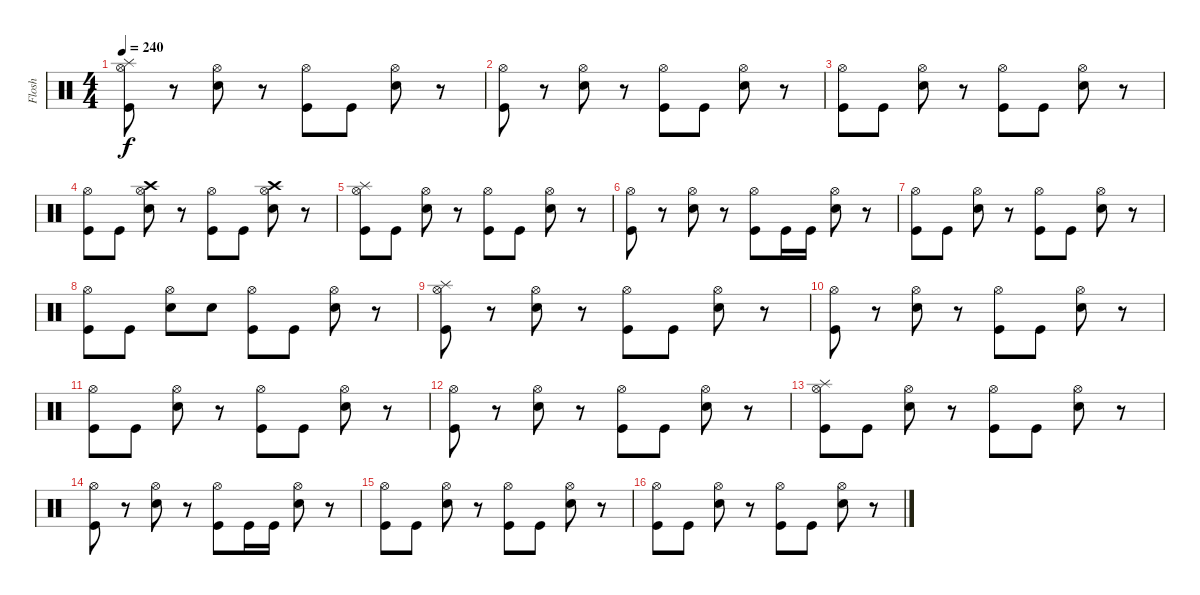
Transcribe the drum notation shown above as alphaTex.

\track ("Flosh" "Flosh") {instrument percussion}
\staff {score}
\articulation defaults
\ts (4 4)
\tempo 240
\clef neutral
\ks c
("Splash (hit)" "Hi-Hat (open)" "Kick (hit)").8{dy f} r.8 ("Hi-Hat (open)" "Snare (hit) 2").8 r.8 ("Hi-Hat (open)" "Kick (hit)").8 "Kick (hit)".8 ("Hi-Hat (open)" "Snare (hit) 2").8 r.8 |
("Hi-Hat (open)" "Kick (hit)").8 r.8 ("Hi-Hat (open)" "Snare (hit) 2").8 r.8 ("Hi-Hat (open)" "Kick (hit)").8 "Kick (hit)".8 ("Hi-Hat (open)" "Snare (hit) 2").8 r.8 |
("Hi-Hat (open)" "Kick (hit)").8 "Kick (hit)".8 ("Hi-Hat (open)" "Snare (hit) 2").8 r.8 ("Hi-Hat (open)" "Kick (hit)").8 "Kick (hit)".8 ("Hi-Hat (open)" "Snare (hit) 2").8 r.8 |
("Hi-Hat (open)" "Kick (hit)").8 "Kick (hit)".8 ("Crash high (hit)" "Hi-Hat (open)" "Snare (hit) 2").8 r.8 ("Hi-Hat (open)" "Kick (hit)").8 "Kick (hit)".8 ("Crash high (hit)" "Hi-Hat (open)" "Snare (hit) 2").8 r.8 |
("Splash (hit)" "Hi-Hat (open)" "Kick (hit)").8 "Kick (hit)".8 ("Hi-Hat (open)" "Snare (hit) 2").8 r.8 ("Hi-Hat (open)" "Kick (hit)").8 "Kick (hit)".8 ("Hi-Hat (open)" "Snare (hit) 2").8 r.8 |
("Hi-Hat (open)" "Kick (hit)").8 r.8 ("Hi-Hat (open)" "Snare (hit) 2").8 r.8 ("Hi-Hat (open)" "Kick (hit)").8 "Kick (hit)".16 "Kick (hit)".16 ("Hi-Hat (open)" "Snare (hit) 2").8 r.8 |
("Hi-Hat (open)" "Kick (hit)").8 "Kick (hit)".8 ("Hi-Hat (open)" "Snare (hit) 2").8 r.8 ("Hi-Hat (open)" "Kick (hit)").8 "Kick (hit)".8 ("Hi-Hat (open)" "Snare (hit) 2").8 r.8 |
("Hi-Hat (open)" "Kick (hit)").8 "Kick (hit)".8 ("Hi-Hat (open)" "Snare (hit) 2").8 "Snare (hit) 2".8 ("Hi-Hat (open)" "Kick (hit)").8 "Kick (hit)".8 ("Hi-Hat (open)" "Snare (hit) 2").8 r.8 |
("Splash (hit)" "Hi-Hat (open)" "Kick (hit)").8 r.8 ("Hi-Hat (open)" "Snare (hit) 2").8 r.8 ("Hi-Hat (open)" "Kick (hit)").8 "Kick (hit)".8 ("Hi-Hat (open)" "Snare (hit) 2").8 r.8 |
("Hi-Hat (open)" "Kick (hit)").8 r.8 ("Hi-Hat (open)" "Snare (hit) 2").8 r.8 ("Hi-Hat (open)" "Kick (hit)").8 "Kick (hit)".8 ("Hi-Hat (open)" "Snare (hit) 2").8 r.8 |
("Hi-Hat (open)" "Kick (hit)").8 "Kick (hit)".8 ("Hi-Hat (open)" "Snare (hit) 2").8 r.8 ("Hi-Hat (open)" "Kick (hit)").8 "Kick (hit)".8 ("Hi-Hat (open)" "Snare (hit) 2").8 r.8 |
("Hi-Hat (open)" "Kick (hit)").8 r.8 ("Hi-Hat (open)" "Snare (hit) 2").8 r.8 ("Hi-Hat (open)" "Kick (hit)").8 "Kick (hit)".8 ("Hi-Hat (open)" "Snare (hit) 2").8 r.8 |
("Splash (hit)" "Hi-Hat (open)" "Kick (hit)").8 "Kick (hit)".8 ("Hi-Hat (open)" "Snare (hit) 2").8 r.8 ("Hi-Hat (open)" "Kick (hit)").8 "Kick (hit)".8 ("Hi-Hat (open)" "Snare (hit) 2").8 r.8 |
("Hi-Hat (open)" "Kick (hit)").8 r.8 ("Hi-Hat (open)" "Snare (hit) 2").8 r.8 ("Hi-Hat (open)" "Kick (hit)").8 "Kick (hit)".16 "Kick (hit)".16 ("Hi-Hat (open)" "Snare (hit) 2").8 r.8 |
("Hi-Hat (open)" "Kick (hit)").8 "Kick (hit)".8 ("Hi-Hat (open)" "Snare (hit) 2").8 r.8 ("Hi-Hat (open)" "Kick (hit)").8 "Kick (hit)".8 ("Hi-Hat (open)" "Snare (hit) 2").8 r.8 |
("Hi-Hat (open)" "Kick (hit)").8 "Kick (hit)".8 ("Hi-Hat (open)" "Snare (hit) 2").8 r.8 ("Hi-Hat (open)" "Kick (hit)").8 "Kick (hit)".8 ("Hi-Hat (open)" "Snare (hit) 2").8 r.8
